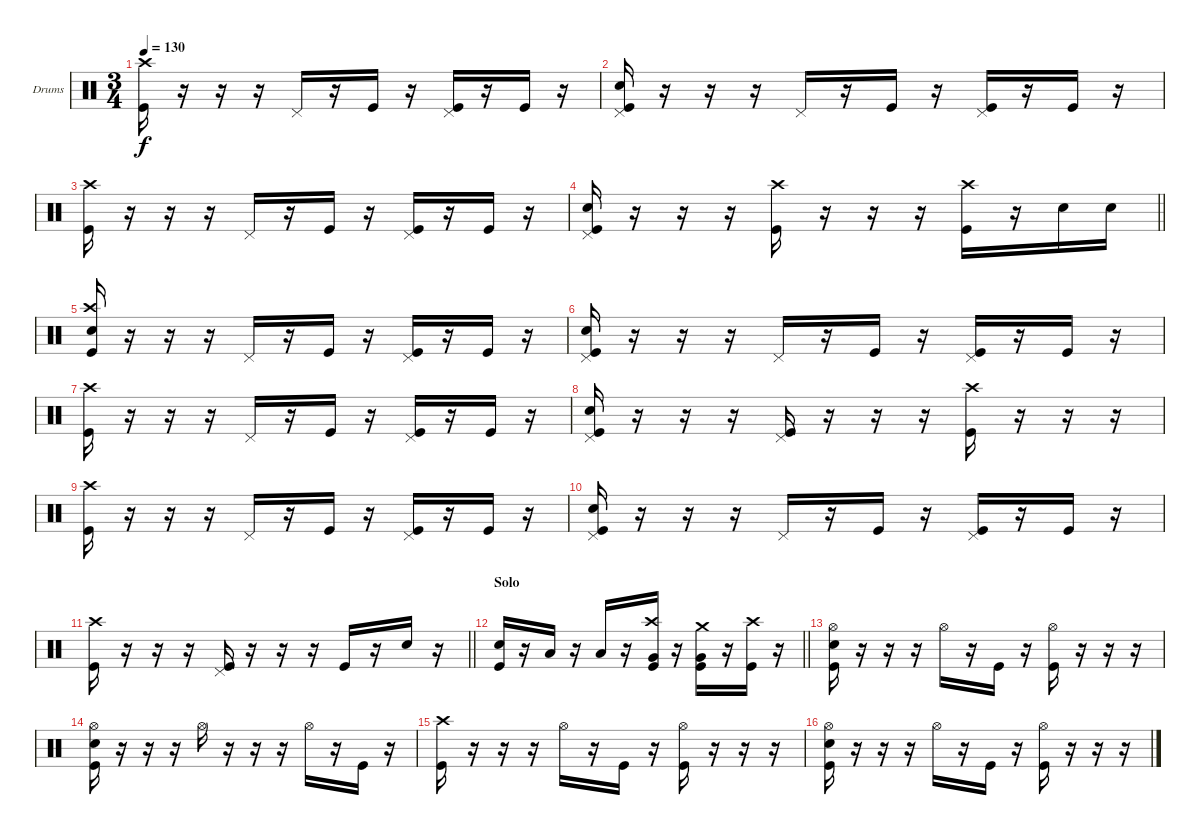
\bracketExtendMode groupsimilarinstruments
\firstSystemTrackNameOrientation horizontal
\otherSystemsTrackNameOrientation horizontal
\track ("Drumkit" "Drums") {instrument percussion}
\staff {score}
\articulation defaults
\ts (3 4)
\tempo 130
\clef neutral
\ks c
("Kick (hit)" "Crash high (hit)").16{dy f} r.16 r.16 r.16 "Pedal Hi-Hat (hit)".16 r.16 "Kick (hit)".16 r.16 ("Kick (hit)" "Pedal Hi-Hat (hit)").16 r.16 "Kick (hit)".16 r.16 |
("Kick (hit)" "Snare (hit) 2" "Pedal Hi-Hat (hit)").16 r.16 r.16 r.16 "Pedal Hi-Hat (hit)".16 r.16 "Kick (hit)".16 r.16 ("Kick (hit)" "Pedal Hi-Hat (hit)").16 r.16 "Kick (hit)".16 r.16 |
("Kick (hit)" "Crash high (hit)").16 r.16 r.16 r.16 "Pedal Hi-Hat (hit)".16 r.16 "Kick (hit)".16 r.16 ("Kick (hit)" "Pedal Hi-Hat (hit)").16 r.16 "Kick (hit)".16 r.16 |
\barLineRight lightlight
("Kick (hit)" "Snare (hit) 2" "Pedal Hi-Hat (hit)").16 r.16 r.16 r.16 ("Kick (hit)" "Crash high (hit)").16 r.16 r.16 r.16 ("Kick (hit)" "Crash high (hit)").16 r.16 "Snare (hit) 2".16 "Snare (hit) 2".16 |
("Kick (hit)" "Snare (hit) 2" "Crash high (hit)").16 r.16 r.16 r.16 "Pedal Hi-Hat (hit)".16 r.16 "Kick (hit)".16 r.16 ("Kick (hit)" "Pedal Hi-Hat (hit)").16 r.16 "Kick (hit)".16 r.16 |
("Kick (hit)" "Snare (hit) 2" "Pedal Hi-Hat (hit)").16 r.16 r.16 r.16 "Pedal Hi-Hat (hit)".16 r.16 "Kick (hit)".16 r.16 ("Kick (hit)" "Pedal Hi-Hat (hit)").16 r.16 "Kick (hit)".16 r.16 |
("Kick (hit)" "Crash high (hit)").16 r.16 r.16 r.16 "Pedal Hi-Hat (hit)".16 r.16 "Kick (hit)".16 r.16 ("Kick (hit)" "Pedal Hi-Hat (hit)").16 r.16 "Kick (hit)".16 r.16 |
("Kick (hit)" "Snare (hit) 2" "Pedal Hi-Hat (hit)").16 r.16 r.16 r.16 ("Kick (hit)" "Pedal Hi-Hat (hit)").16 r.16 r.16 r.16 ("Kick (hit)" "Crash high (hit)").16 r.16 r.16 r.16 |
("Kick (hit)" "Crash high (hit)").16 r.16 r.16 r.16 "Pedal Hi-Hat (hit)".16 r.16 "Kick (hit)".16 r.16 ("Kick (hit)" "Pedal Hi-Hat (hit)").16 r.16 "Kick (hit)".16 r.16 |
("Kick (hit)" "Snare (hit) 2" "Pedal Hi-Hat (hit)").16 r.16 r.16 r.16 "Pedal Hi-Hat (hit)".16 r.16 "Kick (hit)".16 r.16 ("Kick (hit)" "Pedal Hi-Hat (hit)").16 r.16 "Kick (hit)".16 r.16 |
\barLineRight lightlight
("Kick (hit)" "Crash high (hit)").16 r.16 r.16 r.16 ("Kick (hit)" "Pedal Hi-Hat (hit)").16 r.16 r.16 r.16 "Kick (hit)".16 r.16 "Snare (hit) 2".16 r.16 |
\section ("" "Solo")
\barLineRight lightlight
("Kick (hit)" "Snare (hit) 2").16 r.16 "Low Tom (hit)".16 r.16 "Low Tom (hit)".16 r.16 ("Kick (hit)" "Very Low Tom (hit)" "Crash high (hit)").16 r.16 ("Kick (hit)" "Very Low Tom (hit)" "Crash medium (hit)").16 r.16 ("Kick (hit)" "Crash high (hit)").16 r.16 |
("Kick (hit)" "Snare (hit) 2" "Hi-Hat (open)").16 r.16 r.16 r.16 "Hi-Hat (open)".16 r.16 "Kick (hit)".16 r.16 ("Kick (hit)" "Hi-Hat (open)").16 r.16 r.16 r.16 |
("Kick (hit)" "Snare (hit) 2" "Hi-Hat (open)").16 r.16 r.16 r.16 "Hi-Hat (open)".16 r.16 r.16 r.16 "Hi-Hat (open)".16 r.16 "Kick (hit)".16 r.16 |
("Kick (hit)" "Crash high (hit)").16 r.16 r.16 r.16 "Hi-Hat (open)".16 r.16 "Kick (hit)".16 r.16 ("Kick (hit)" "Hi-Hat (open)").16 r.16 r.16 r.16 |
("Kick (hit)" "Snare (hit) 2" "Hi-Hat (open)").16 r.16 r.16 r.16 "Hi-Hat (open)".16 r.16 "Kick (hit)".16 r.16 ("Kick (hit)" "Hi-Hat (open)").16 r.16 r.16 r.16
